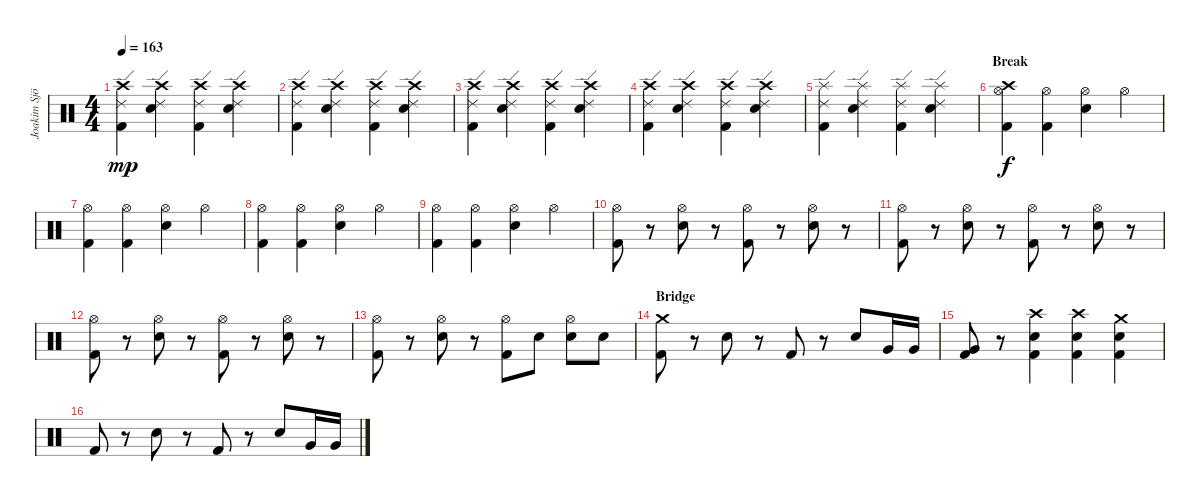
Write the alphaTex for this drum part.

\track ("Joakim Sjöberg" "Joakim Sjö") {instrument percussion}
\staff {score}
\articulation defaults
\ts (4 4)
\tempo 163
\clef neutral
\ks c
("Crash high (hit)" "Ride (edge) 2" "Kick (hit) 2").4{dy mp} ("Crash high (hit)" "Ride (edge) 2" "Electric Snare (hit)").4 ("Crash high (hit)" "Ride (edge) 2" "Kick (hit) 2").4 ("Crash high (hit)" "Ride (edge) 2" "Electric Snare (hit)").4 |
("Crash high (hit)" "Ride (edge) 2" "Kick (hit) 2").4 ("Crash high (hit)" "Ride (edge) 2" "Electric Snare (hit)").4 ("Crash high (hit)" "Ride (edge) 2" "Kick (hit) 2").4 ("Crash high (hit)" "Ride (edge) 2" "Electric Snare (hit)").4 |
("Crash high (hit)" "Ride (edge) 2" "Kick (hit) 2").4 ("Crash high (hit)" "Ride (edge) 2" "Electric Snare (hit)").4 ("Crash high (hit)" "Ride (edge) 2" "Kick (hit) 2").4 ("Crash high (hit)" "Ride (edge) 2" "Electric Snare (hit)").4 |
("Crash high (hit)" "Ride (edge) 2" "Kick (hit) 2").4 ("Crash high (hit)" "Ride (edge) 2" "Electric Snare (hit)").4 ("Crash high (hit)" "Ride (edge) 2" "Kick (hit) 2").4 ("Crash high (hit)" "Ride (edge) 2" "Electric Snare (hit)").4 |
("Splash (hit)" "Ride (edge) 2" "Kick (hit) 2").4 ("Splash (hit)" "Ride (edge) 2" "Electric Snare (hit)").4 ("Splash (hit)" "Ride (edge) 2" "Kick (hit) 2").4 ("Splash (hit)" "Ride (edge) 2" "Electric Snare (hit)").4 |
\section ("" "Break")
("Crash high (hit)" "Hi-Hat (open)" "Kick (hit) 2").4{dy f} ("Hi-Hat (open)" "Kick (hit) 2").4 ("Hi-Hat (open)" "Electric Snare (hit)").4 "Hi-Hat (open)".4 |
("Hi-Hat (open)" "Kick (hit) 2").4 ("Hi-Hat (open)" "Kick (hit) 2").4 ("Hi-Hat (open)" "Electric Snare (hit)").4 "Hi-Hat (open)".4 |
("Hi-Hat (open)" "Kick (hit) 2").4 ("Hi-Hat (open)" "Kick (hit) 2").4 ("Hi-Hat (open)" "Electric Snare (hit)").4 "Hi-Hat (open)".4 |
("Hi-Hat (open)" "Kick (hit) 2").4 ("Hi-Hat (open)" "Kick (hit) 2").4 ("Hi-Hat (open)" "Electric Snare (hit)").4 "Hi-Hat (open)".4 |
("Hi-Hat (open)" "Kick (hit) 2").8 r.8 ("Hi-Hat (open)" "Electric Snare (hit)").8 r.8 ("Hi-Hat (open)" "Kick (hit) 2").8 r.8 ("Hi-Hat (open)" "Electric Snare (hit)").8 r.8 |
("Hi-Hat (open)" "Kick (hit) 2").8 r.8 ("Hi-Hat (open)" "Electric Snare (hit)").8 r.8 ("Hi-Hat (open)" "Kick (hit) 2").8 r.8 ("Hi-Hat (open)" "Electric Snare (hit)").8 r.8 |
("Hi-Hat (open)" "Kick (hit) 2").8 r.8 ("Hi-Hat (open)" "Electric Snare (hit)").8 r.8 ("Hi-Hat (open)" "Kick (hit) 2").8 r.8 ("Hi-Hat (open)" "Electric Snare (hit)").8 r.8 |
("Hi-Hat (open)" "Kick (hit) 2").8 r.8 ("Hi-Hat (open)" "Electric Snare (hit)").8 r.8 ("Hi-Hat (open)" "Kick (hit) 2").8 "Electric Snare (hit)".8 ("Hi-Hat (open)" "Electric Snare (hit)").8 "Electric Snare (hit)".8 |
\section ("" "Bridge")
("Crash medium (hit)" "Kick (hit) 2").8 r.8 "Electric Snare (hit)".8 r.8 "Kick (hit) 2".8 r.8 "Electric Snare (hit)".8 "Very Low Tom (hit)".16 "Very Low Tom (hit)".16 |
("Very Low Tom (hit)" "Kick (hit) 2").8 r.8 ("Crash high (hit)" "Electric Snare (hit)" "Kick (hit) 2").4 ("Crash high (hit)" "Electric Snare (hit)" "Kick (hit) 2").4 ("Crash medium (hit)" "Electric Snare (hit)" "Kick (hit) 2").4 |
"Kick (hit) 2".8 r.8 "Electric Snare (hit)".8 r.8 "Kick (hit) 2".8 r.8 "Electric Snare (hit)".8 "Very Low Tom (hit)".16 "Very Low Tom (hit)".16
